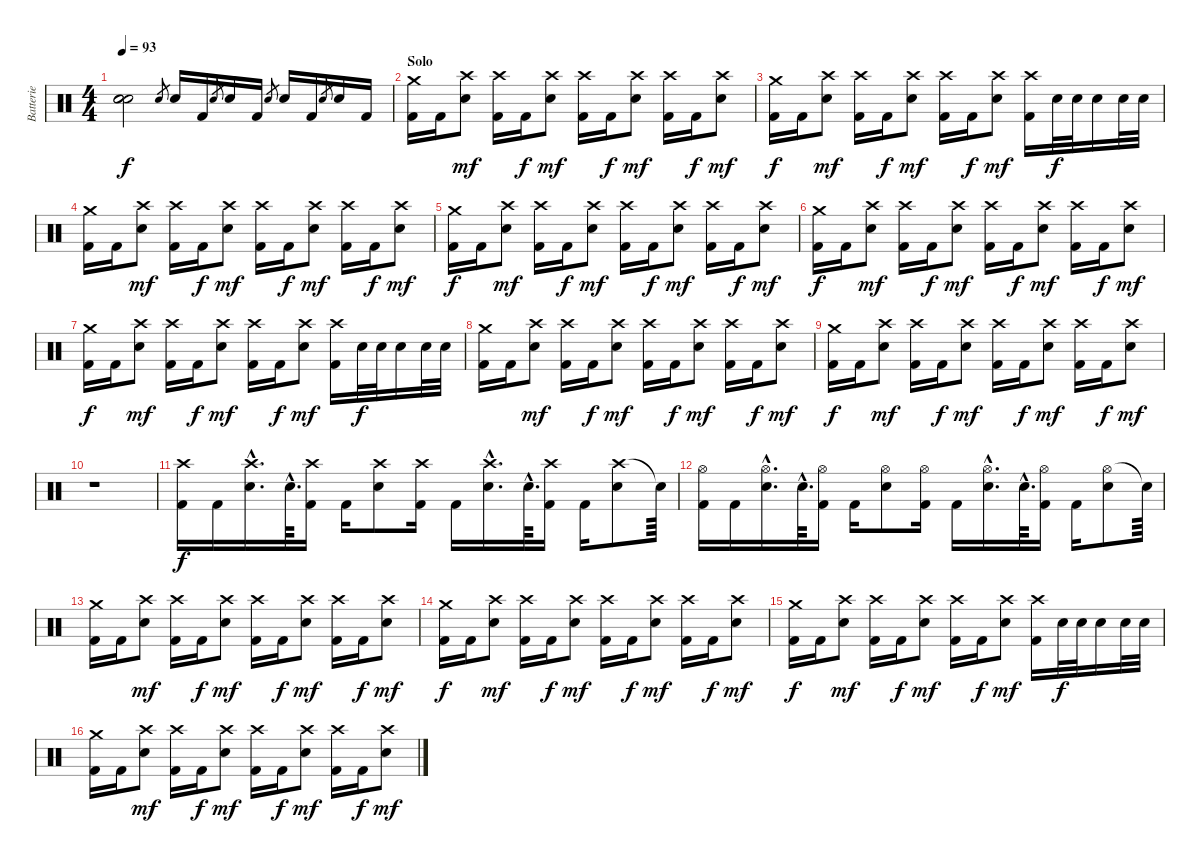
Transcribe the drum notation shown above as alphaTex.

\track ("Batterie" "Batterie") {instrument percussion}
\staff {score}
\articulation defaults
\ts (4 4)
\tempo 93
\clef neutral
\ks c
("Snare (hit)"{t} "Snare (hit)"{t} "Snare (hit)"{t}).2{dy f} "Snare (hit) 2".8{gr} "Snare (hit) 2".16 "Kick (hit) 2".16 "Snare (hit) 2".8{gr} "Snare (hit) 2".16 "Kick (hit) 2".16 "Snare (hit) 2".8{gr} "Snare (hit) 2".16 "Kick (hit) 2".16 "Snare (hit) 2".8{gr} "Snare (hit) 2".16 "Kick (hit) 2".16 |
\section ("" "Solo")
("Crash medium (hit)" "Kick (hit) 2").16 "Kick (hit) 2".16 ("Crash high (hit)" "Snare (hit) 2").8{dy mf} ("Crash high (hit)" "Kick (hit) 2").16 "Kick (hit) 2".16{dy f} ("Crash high (hit)" "Snare (hit) 2").8{dy mf} ("Crash high (hit)" "Kick (hit) 2").16 "Kick (hit) 2".16{dy f} ("Crash high (hit)" "Snare (hit) 2").8{dy mf} ("Crash high (hit)" "Kick (hit) 2").16 "Kick (hit) 2".16{dy f} ("Crash high (hit)" "Snare (hit) 2").8{dy mf} |
("Crash medium (hit)" "Kick (hit) 2").16{dy f} "Kick (hit) 2".16 ("Crash high (hit)" "Snare (hit) 2").8{dy mf} ("Crash high (hit)" "Kick (hit) 2").16 "Kick (hit) 2".16{dy f} ("Crash high (hit)" "Snare (hit) 2").8{dy mf} ("Crash high (hit)" "Kick (hit) 2").16 "Kick (hit) 2".16{dy f} ("Crash high (hit)" "Snare (hit) 2").8{dy mf} ("Crash high (hit)" "Kick (hit) 2").16 "Snare (hit) 2".32{dy f} "Snare (hit) 2".32 "Snare (hit) 2".16 "Snare (hit) 2".32 "Snare (hit) 2".32 |
("Crash medium (hit)" "Kick (hit) 2").16 "Kick (hit) 2".16 ("Crash high (hit)" "Snare (hit) 2").8{dy mf} ("Crash high (hit)" "Kick (hit) 2").16 "Kick (hit) 2".16{dy f} ("Crash high (hit)" "Snare (hit) 2").8{dy mf} ("Crash high (hit)" "Kick (hit) 2").16 "Kick (hit) 2".16{dy f} ("Crash high (hit)" "Snare (hit) 2").8{dy mf} ("Crash high (hit)" "Kick (hit) 2").16 "Kick (hit) 2".16{dy f} ("Crash high (hit)" "Snare (hit) 2").8{dy mf} |
("Crash medium (hit)" "Kick (hit) 2").16{dy f} "Kick (hit) 2".16 ("Crash high (hit)" "Snare (hit) 2").8{dy mf} ("Crash high (hit)" "Kick (hit) 2").16 "Kick (hit) 2".16{dy f} ("Crash high (hit)" "Snare (hit) 2").8{dy mf} ("Crash high (hit)" "Kick (hit) 2").16 "Kick (hit) 2".16{dy f} ("Crash high (hit)" "Snare (hit) 2").8{dy mf} ("Crash high (hit)" "Kick (hit) 2").16 "Kick (hit) 2".16{dy f} ("Crash high (hit)" "Snare (hit) 2").8{dy mf} |
("Crash medium (hit)" "Kick (hit) 2").16{dy f} "Kick (hit) 2".16 ("Crash high (hit)" "Snare (hit) 2").8{dy mf} ("Crash high (hit)" "Kick (hit) 2").16 "Kick (hit) 2".16{dy f} ("Crash high (hit)" "Snare (hit) 2").8{dy mf} ("Crash high (hit)" "Kick (hit) 2").16 "Kick (hit) 2".16{dy f} ("Crash high (hit)" "Snare (hit) 2").8{dy mf} ("Crash high (hit)" "Kick (hit) 2").16 "Kick (hit) 2".16{dy f} ("Crash high (hit)" "Snare (hit) 2").8{dy mf} |
("Crash medium (hit)" "Kick (hit) 2").16{dy f} "Kick (hit) 2".16 ("Crash high (hit)" "Snare (hit) 2").8{dy mf} ("Crash high (hit)" "Kick (hit) 2").16 "Kick (hit) 2".16{dy f} ("Crash high (hit)" "Snare (hit) 2").8{dy mf} ("Crash high (hit)" "Kick (hit) 2").16 "Kick (hit) 2".16{dy f} ("Crash high (hit)" "Snare (hit) 2").8{dy mf} ("Crash high (hit)" "Kick (hit) 2").16 "Snare (hit) 2".32{dy f} "Snare (hit) 2".32 "Snare (hit) 2".16 "Snare (hit) 2".32 "Snare (hit) 2".32 |
("Crash medium (hit)" "Kick (hit) 2").16 "Kick (hit) 2".16 ("Crash high (hit)" "Snare (hit) 2").8{dy mf} ("Crash high (hit)" "Kick (hit) 2").16 "Kick (hit) 2".16{dy f} ("Crash high (hit)" "Snare (hit) 2").8{dy mf} ("Crash high (hit)" "Kick (hit) 2").16 "Kick (hit) 2".16{dy f} ("Crash high (hit)" "Snare (hit) 2").8{dy mf} ("Crash high (hit)" "Kick (hit) 2").16 "Kick (hit) 2".16{dy f} ("Crash high (hit)" "Snare (hit) 2").8{dy mf} |
("Crash medium (hit)" "Kick (hit) 2").16{dy f} "Kick (hit) 2".16 ("Crash high (hit)" "Snare (hit) 2").8{dy mf} ("Crash high (hit)" "Kick (hit) 2").16 "Kick (hit) 2".16{dy f} ("Crash high (hit)" "Snare (hit) 2").8{dy mf} ("Crash high (hit)" "Kick (hit) 2").16 "Kick (hit) 2".16{dy f} ("Crash high (hit)" "Snare (hit) 2").8{dy mf} ("Crash high (hit)" "Kick (hit) 2").16 "Kick (hit) 2".16{dy f} ("Crash high (hit)" "Snare (hit) 2").8{dy mf} |
r.1 |
("Crash high (hit)" "Kick (hit) 2").16{dy f} "Kick (hit) 2".16 ("Crash high (hit)"{hac} "Snare (hit) 2"{hac}).16{d} "Snare (hit) 2"{hac}.64{d} ("Crash high (hit)" "Kick (hit) 2").16 "Kick (hit) 2".16 ("Crash high (hit)" "Snare (hit) 2").8 ("Crash high (hit)" "Kick (hit) 2").16 "Kick (hit) 2".16 ("Crash high (hit)"{hac} "Snare (hit) 2"{hac}).16{d} "Snare (hit) 2"{hac}.64{d} ("Crash high (hit)" "Kick (hit) 2").16 "Kick (hit) 2".16 ("Crash high (hit)" "Snare (hit) 2").8 "Snare (hit)"{t}.64 |
("Hi-Hat (open)" "Kick (hit) 2").16 "Kick (hit) 2".16 ("Hi-Hat (open)"{hac} "Snare (hit) 2"{hac}).16{d} "Snare (hit) 2"{hac}.64{d} ("Hi-Hat (open)" "Kick (hit) 2").16 "Kick (hit) 2".16 ("Hi-Hat (open)" "Snare (hit) 2").8 ("Hi-Hat (open)" "Kick (hit) 2").16 "Kick (hit) 2".16 ("Hi-Hat (open)"{hac} "Snare (hit) 2"{hac}).16{d} "Snare (hit) 2"{hac}.64{d} ("Hi-Hat (open)" "Kick (hit) 2").16 "Kick (hit) 2".16 ("Hi-Hat (open)" "Snare (hit) 2").8 "Snare (hit)"{t}.64 |
("Crash medium (hit)" "Kick (hit) 2").16 "Kick (hit) 2".16 ("Crash high (hit)" "Snare (hit) 2").8{dy mf} ("Crash high (hit)" "Kick (hit) 2").16 "Kick (hit) 2".16{dy f} ("Crash high (hit)" "Snare (hit) 2").8{dy mf} ("Crash high (hit)" "Kick (hit) 2").16 "Kick (hit) 2".16{dy f} ("Crash high (hit)" "Snare (hit) 2").8{dy mf} ("Crash high (hit)" "Kick (hit) 2").16 "Kick (hit) 2".16{dy f} ("Crash high (hit)" "Snare (hit) 2").8{dy mf} |
("Crash medium (hit)" "Kick (hit) 2").16{dy f} "Kick (hit) 2".16 ("Crash high (hit)" "Snare (hit) 2").8{dy mf} ("Crash high (hit)" "Kick (hit) 2").16 "Kick (hit) 2".16{dy f} ("Crash high (hit)" "Snare (hit) 2").8{dy mf} ("Crash high (hit)" "Kick (hit) 2").16 "Kick (hit) 2".16{dy f} ("Crash high (hit)" "Snare (hit) 2").8{dy mf} ("Crash high (hit)" "Kick (hit) 2").16 "Kick (hit) 2".16{dy f} ("Crash high (hit)" "Snare (hit) 2").8{dy mf} |
("Crash medium (hit)" "Kick (hit) 2").16{dy f} "Kick (hit) 2".16 ("Crash high (hit)" "Snare (hit) 2").8{dy mf} ("Crash high (hit)" "Kick (hit) 2").16 "Kick (hit) 2".16{dy f} ("Crash high (hit)" "Snare (hit) 2").8{dy mf} ("Crash high (hit)" "Kick (hit) 2").16 "Kick (hit) 2".16{dy f} ("Crash high (hit)" "Snare (hit) 2").8{dy mf} ("Crash high (hit)" "Kick (hit) 2").16 "Snare (hit) 2".32{dy f} "Snare (hit) 2".32 "Snare (hit) 2".16 "Snare (hit) 2".32 "Snare (hit) 2".32 |
("Crash medium (hit)" "Kick (hit) 2").16 "Kick (hit) 2".16 ("Crash high (hit)" "Snare (hit) 2").8{dy mf} ("Crash high (hit)" "Kick (hit) 2").16 "Kick (hit) 2".16{dy f} ("Crash high (hit)" "Snare (hit) 2").8{dy mf} ("Crash high (hit)" "Kick (hit) 2").16 "Kick (hit) 2".16{dy f} ("Crash high (hit)" "Snare (hit) 2").8{dy mf} ("Crash high (hit)" "Kick (hit) 2").16 "Kick (hit) 2".16{dy f} ("Crash high (hit)" "Snare (hit) 2").8{dy mf}
